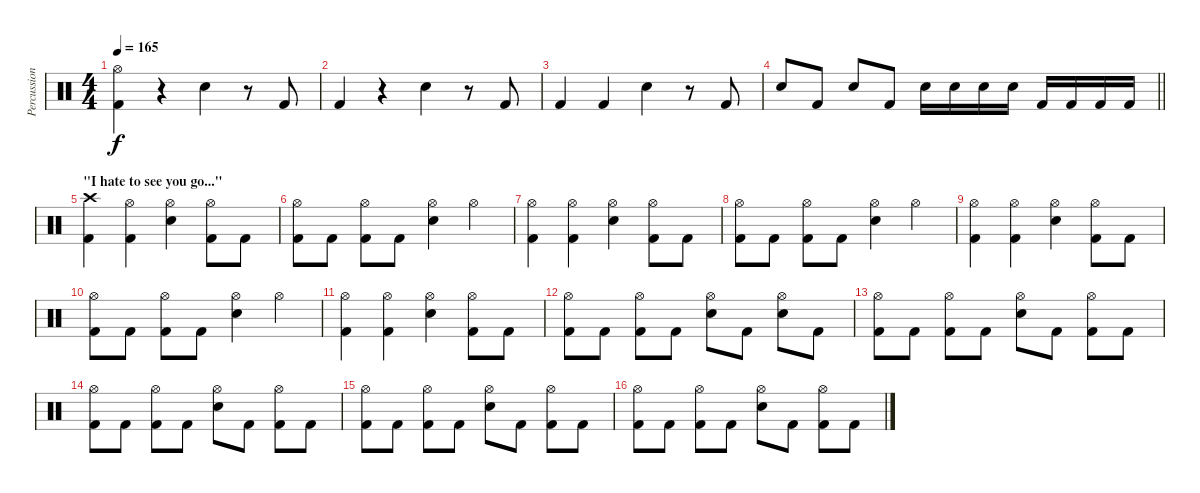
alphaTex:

\track ("Percussion" "Percussion") {instrument percussion}
\staff {score}
\articulation defaults
\ts (4 4)
\tempo 165
\clef neutral
\ks c
("Hi-Hat (open)" "Kick (hit) 2").4{dy f} r.4 "Electric Snare (hit)".4 r.8 "Kick (hit) 2".8 |
"Kick (hit) 2".4 r.4 "Electric Snare (hit)".4 r.8 "Kick (hit) 2".8 |
"Kick (hit) 2".4 "Kick (hit) 2".4 "Electric Snare (hit)".4 r.8 "Kick (hit) 2".8 |
\barLineRight lightlight "Electric Snare (hit)".8 "Kick (hit) 2".8 "Electric Snare (hit)".8 "Kick (hit) 2".8 "Electric Snare (hit)".16 "Electric Snare (hit)".16 "Electric Snare (hit)".16 "Electric Snare (hit)".16 "Kick (hit) 2".16 "Kick (hit) 2".16 "Kick (hit) 2".16 "Kick (hit) 2".16
|
\section ("" "\"I hate to see you go...\"")
("Crash high (hit)" "Kick (hit) 2").4 ("Hi-Hat (open)" "Kick (hit) 2").4 ("Hi-Hat (open)" "Electric Snare (hit)").4 ("Hi-Hat (open)" "Kick (hit) 2").8 "Kick (hit) 2".8 |
("Hi-Hat (open)" "Kick (hit) 2").8 "Kick (hit) 2".8 ("Hi-Hat (open)" "Kick (hit) 2").8 "Kick (hit) 2".8 ("Hi-Hat (open)" "Electric Snare (hit)").4 "Hi-Hat (open)".4 |
("Hi-Hat (open)" "Kick (hit) 2").4 ("Hi-Hat (open)" "Kick (hit) 2").4 ("Hi-Hat (open)" "Electric Snare (hit)").4 ("Hi-Hat (open)" "Kick (hit) 2").8 "Kick (hit) 2".8 |
("Hi-Hat (open)" "Kick (hit) 2").8 "Kick (hit) 2".8 ("Hi-Hat (open)" "Kick (hit) 2").8 "Kick (hit) 2".8 ("Hi-Hat (open)" "Electric Snare (hit)").4 "Hi-Hat (open)".4 |
("Hi-Hat (open)" "Kick (hit) 2").4 ("Hi-Hat (open)" "Kick (hit) 2").4 ("Hi-Hat (open)" "Electric Snare (hit)").4 ("Hi-Hat (open)" "Kick (hit) 2").8 "Kick (hit) 2".8 |
("Hi-Hat (open)" "Kick (hit) 2").8 "Kick (hit) 2".8 ("Hi-Hat (open)" "Kick (hit) 2").8 "Kick (hit) 2".8 ("Hi-Hat (open)" "Electric Snare (hit)").4 "Hi-Hat (open)".4 |
("Hi-Hat (open)" "Kick (hit) 2").4 ("Hi-Hat (open)" "Kick (hit) 2").4 ("Hi-Hat (open)" "Electric Snare (hit)").4 ("Hi-Hat (open)" "Kick (hit) 2").8 "Kick (hit) 2".8 |
("Hi-Hat (open)" "Kick (hit) 2").8 "Kick (hit) 2".8 ("Hi-Hat (open)" "Kick (hit) 2").8 "Kick (hit) 2".8 ("Hi-Hat (open)" "Electric Snare (hit)").8 "Kick (hit) 2".8 ("Hi-Hat (open)" "Electric Snare (hit)").8 "Kick (hit) 2".8 |
("Hi-Hat (open)" "Kick (hit) 2").8 "Kick (hit) 2".8 ("Hi-Hat (open)" "Kick (hit) 2").8 "Kick (hit) 2".8 ("Hi-Hat (open)" "Electric Snare (hit)").8 "Kick (hit) 2".8 ("Hi-Hat (open)" "Kick (hit) 2").8 "Kick (hit) 2".8 |
("Hi-Hat (open)" "Kick (hit) 2").8 "Kick (hit) 2".8 ("Hi-Hat (open)" "Kick (hit) 2").8 "Kick (hit) 2".8 ("Hi-Hat (open)" "Electric Snare (hit)").8 "Kick (hit) 2".8 ("Hi-Hat (open)" "Kick (hit) 2").8 "Kick (hit) 2".8 |
("Hi-Hat (open)" "Kick (hit) 2").8 "Kick (hit) 2".8 ("Hi-Hat (open)" "Kick (hit) 2").8 "Kick (hit) 2".8 ("Hi-Hat (open)" "Electric Snare (hit)").8 "Kick (hit) 2".8 ("Hi-Hat (open)" "Kick (hit) 2").8 "Kick (hit) 2".8 |
("Hi-Hat (open)" "Kick (hit) 2").8 "Kick (hit) 2".8 ("Hi-Hat (open)" "Kick (hit) 2").8 "Kick (hit) 2".8 ("Hi-Hat (open)" "Electric Snare (hit)").8 "Kick (hit) 2".8 ("Hi-Hat (open)" "Kick (hit) 2").8 "Kick (hit) 2".8
